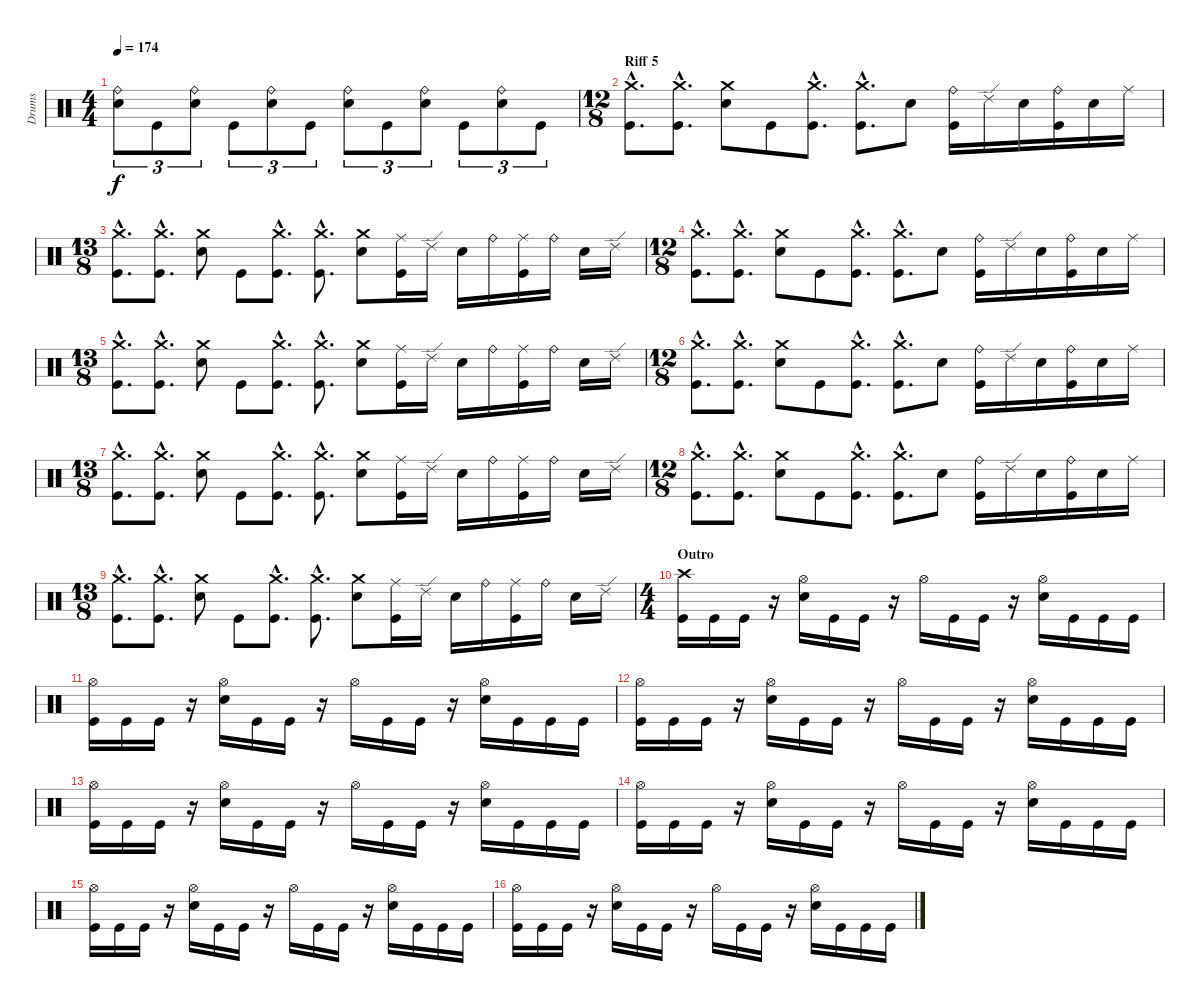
\track ("Drums" "Drums") {instrument percussion}
\staff {score}
\articulation defaults
\ts (4 4)
\tempo 174
\clef neutral
\ks c
("Ride (bell)" "Electric Snare (hit)").8{tu (3 2) dy f} "Kick (hit)".8{tu (3 2)} ("Ride (bell)" "Electric Snare (hit)").8{tu (3 2)} "Kick (hit)".8{tu (3 2)} ("Ride (bell)" "Electric Snare (hit)").8{tu (3 2)} "Kick (hit)".8{tu (3 2)} ("Ride (bell)" "Electric Snare (hit)").8{tu (3 2)} "Kick (hit)".8{tu (3 2)} ("Ride (bell)" "Electric Snare (hit)").8{tu (3 2)} "Kick (hit)".8{tu (3 2)} ("Ride (bell)" "Electric Snare (hit)").8{tu (3 2)} "Kick (hit)".8{tu (3 2)} |
\ts (12 8)
\section ("" "Riff 5")
("Crash medium (hit)"{hac} "Kick (hit)"{hac}).8{d} ("Crash medium (hit)"{hac} "Kick (hit)"{hac}).8{d} ("Crash medium (hit)" "Electric Snare (hit)").8 "Kick (hit)".8 ("Crash medium (hit)"{hac} "Kick (hit)"{hac}).8{d} ("Crash medium (hit)"{hac} "Kick (hit)"{hac}).8{d} "Electric Snare (hit)".8 ("Ride (bell)" "Kick (hit)").16 "Ride (edge) 2".16 "Electric Snare (hit)".16 ("Ride (bell)" "Kick (hit)").16 "Electric Snare (hit)".16 "Ride (middle)".16 |
\ts (13 8)
("Crash medium (hit)"{hac} "Kick (hit)"{hac}).8{d} ("Crash medium (hit)"{hac} "Kick (hit)"{hac}).8{d} ("Crash medium (hit)" "Electric Snare (hit)").8 "Kick (hit)".8 ("Crash medium (hit)"{hac} "Kick (hit)"{hac}).8{d} ("Crash medium (hit)"{hac} "Kick (hit)"{hac}).8{d} ("Crash medium (hit)" "Electric Snare (hit)").8 ("Ride (middle)" "Kick (hit)").16 "Ride (edge) 2".16 "Electric Snare (hit)".16 "Ride (bell)".16 ("Ride (middle)" "Kick (hit)").16 "Ride (bell)".16 "Electric Snare (hit)".16 "Ride (edge) 2".16 |
\ts (12 8)
("Crash medium (hit)"{hac} "Kick (hit)"{hac}).8{d} ("Crash medium (hit)"{hac} "Kick (hit)"{hac}).8{d} ("Crash medium (hit)" "Electric Snare (hit)").8 "Kick (hit)".8 ("Crash medium (hit)"{hac} "Kick (hit)"{hac}).8{d} ("Crash medium (hit)"{hac} "Kick (hit)"{hac}).8{d} "Electric Snare (hit)".8 ("Ride (bell)" "Kick (hit)").16 "Ride (edge) 2".16 "Electric Snare (hit)".16 ("Ride (bell)" "Kick (hit)").16 "Electric Snare (hit)".16 "Ride (middle)".16 |
\ts (13 8)
("Crash medium (hit)"{hac} "Kick (hit)"{hac}).8{d} ("Crash medium (hit)"{hac} "Kick (hit)"{hac}).8{d} ("Crash medium (hit)" "Electric Snare (hit)").8 "Kick (hit)".8 ("Crash medium (hit)"{hac} "Kick (hit)"{hac}).8{d} ("Crash medium (hit)"{hac} "Kick (hit)"{hac}).8{d} ("Crash medium (hit)" "Electric Snare (hit)").8 ("Ride (middle)" "Kick (hit)").16 "Ride (edge) 2".16 "Electric Snare (hit)".16 "Ride (bell)".16 ("Ride (middle)" "Kick (hit)").16 "Ride (bell)".16 "Electric Snare (hit)".16 "Ride (edge) 2".16 |
\ts (12 8)
("Crash medium (hit)"{hac} "Kick (hit)"{hac}).8{d} ("Crash medium (hit)"{hac} "Kick (hit)"{hac}).8{d} ("Crash medium (hit)" "Electric Snare (hit)").8 "Kick (hit)".8 ("Crash medium (hit)"{hac} "Kick (hit)"{hac}).8{d} ("Crash medium (hit)"{hac} "Kick (hit)"{hac}).8{d} "Electric Snare (hit)".8 ("Ride (bell)" "Kick (hit)").16 "Ride (edge) 2".16 "Electric Snare (hit)".16 ("Ride (bell)" "Kick (hit)").16 "Electric Snare (hit)".16 "Ride (middle)".16 |
\ts (13 8)
("Crash medium (hit)"{hac} "Kick (hit)"{hac}).8{d} ("Crash medium (hit)"{hac} "Kick (hit)"{hac}).8{d} ("Crash medium (hit)" "Electric Snare (hit)").8 "Kick (hit)".8 ("Crash medium (hit)"{hac} "Kick (hit)"{hac}).8{d} ("Crash medium (hit)"{hac} "Kick (hit)"{hac}).8{d} ("Crash medium (hit)" "Electric Snare (hit)").8 ("Ride (middle)" "Kick (hit)").16 "Ride (edge) 2".16 "Electric Snare (hit)".16 "Ride (bell)".16 ("Ride (middle)" "Kick (hit)").16 "Ride (bell)".16 "Electric Snare (hit)".16 "Ride (edge) 2".16 |
\ts (12 8)
("Crash medium (hit)"{hac} "Kick (hit)"{hac}).8{d} ("Crash medium (hit)"{hac} "Kick (hit)"{hac}).8{d} ("Crash medium (hit)" "Electric Snare (hit)").8 "Kick (hit)".8 ("Crash medium (hit)"{hac} "Kick (hit)"{hac}).8{d} ("Crash medium (hit)"{hac} "Kick (hit)"{hac}).8{d} "Electric Snare (hit)".8 ("Ride (bell)" "Kick (hit)").16 "Ride (edge) 2".16 "Electric Snare (hit)".16 ("Ride (bell)" "Kick (hit)").16 "Electric Snare (hit)".16 "Ride (middle)".16 |
\ts (13 8)
("Crash medium (hit)"{hac} "Kick (hit)"{hac}).8{d} ("Crash medium (hit)"{hac} "Kick (hit)"{hac}).8{d} ("Crash medium (hit)" "Electric Snare (hit)").8 "Kick (hit)".8 ("Crash medium (hit)"{hac} "Kick (hit)"{hac}).8{d} ("Crash medium (hit)"{hac} "Kick (hit)"{hac}).8{d} ("Crash medium (hit)" "Electric Snare (hit)").8 ("Ride (middle)" "Kick (hit)").16 "Ride (edge) 2".16 "Electric Snare (hit)".16 "Ride (bell)".16 ("Ride (middle)" "Kick (hit)").16 "Ride (bell)".16 "Electric Snare (hit)".16 "Ride (edge) 2".16 |
\ts (4 4)
\section ("" "Outro")
("Crash high (hit)" "Kick (hit)").16 "Kick (hit)".16 "Kick (hit)".16 r.16 ("Hi-Hat (open)" "Electric Snare (hit)").16 "Kick (hit)".16 "Kick (hit)".16 r.16 "Hi-Hat (open)".16 "Kick (hit)".16 "Kick (hit)".16 r.16 ("Hi-Hat (open)" "Electric Snare (hit)").16 "Kick (hit)".16 "Kick (hit)".16 "Kick (hit)".16 |
("Hi-Hat (open)" "Kick (hit)").16 "Kick (hit)".16 "Kick (hit)".16 r.16 ("Hi-Hat (open)" "Electric Snare (hit)").16 "Kick (hit)".16 "Kick (hit)".16 r.16 "Hi-Hat (open)".16 "Kick (hit)".16 "Kick (hit)".16 r.16 ("Hi-Hat (open)" "Electric Snare (hit)").16 "Kick (hit)".16 "Kick (hit)".16 "Kick (hit)".16 |
("Hi-Hat (open)" "Kick (hit)").16 "Kick (hit)".16 "Kick (hit)".16 r.16 ("Hi-Hat (open)" "Electric Snare (hit)").16 "Kick (hit)".16 "Kick (hit)".16 r.16 "Hi-Hat (open)".16 "Kick (hit)".16 "Kick (hit)".16 r.16 ("Hi-Hat (open)" "Electric Snare (hit)").16 "Kick (hit)".16 "Kick (hit)".16 "Kick (hit)".16 |
("Hi-Hat (open)" "Kick (hit)").16 "Kick (hit)".16 "Kick (hit)".16 r.16 ("Hi-Hat (open)" "Electric Snare (hit)").16 "Kick (hit)".16 "Kick (hit)".16 r.16 "Hi-Hat (open)".16 "Kick (hit)".16 "Kick (hit)".16 r.16 ("Hi-Hat (open)" "Electric Snare (hit)").16 "Kick (hit)".16 "Kick (hit)".16 "Kick (hit)".16 |
("Hi-Hat (open)" "Kick (hit)").16 "Kick (hit)".16 "Kick (hit)".16 r.16 ("Hi-Hat (open)" "Electric Snare (hit)").16 "Kick (hit)".16 "Kick (hit)".16 r.16 "Hi-Hat (open)".16 "Kick (hit)".16 "Kick (hit)".16 r.16 ("Hi-Hat (open)" "Electric Snare (hit)").16 "Kick (hit)".16 "Kick (hit)".16 "Kick (hit)".16 |
("Hi-Hat (open)" "Kick (hit)").16 "Kick (hit)".16 "Kick (hit)".16 r.16 ("Hi-Hat (open)" "Electric Snare (hit)").16 "Kick (hit)".16 "Kick (hit)".16 r.16 "Hi-Hat (open)".16 "Kick (hit)".16 "Kick (hit)".16 r.16 ("Hi-Hat (open)" "Electric Snare (hit)").16 "Kick (hit)".16 "Kick (hit)".16 "Kick (hit)".16 |
("Hi-Hat (open)" "Kick (hit)").16 "Kick (hit)".16 "Kick (hit)".16 r.16 ("Hi-Hat (open)" "Electric Snare (hit)").16 "Kick (hit)".16 "Kick (hit)".16 r.16 "Hi-Hat (open)".16 "Kick (hit)".16 "Kick (hit)".16 r.16 ("Hi-Hat (open)" "Electric Snare (hit)").16 "Kick (hit)".16 "Kick (hit)".16 "Kick (hit)".16
